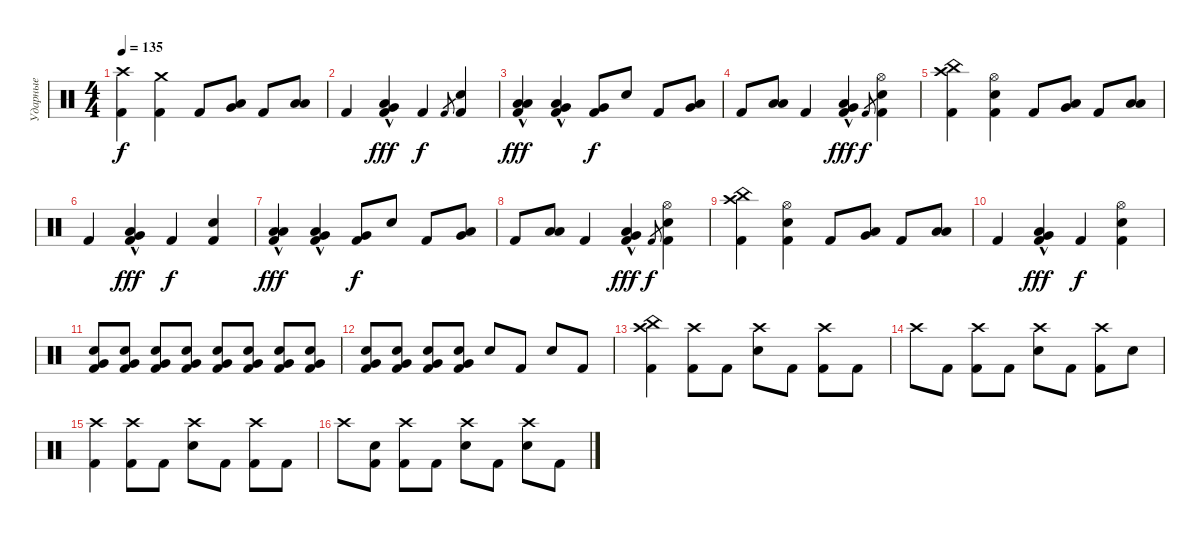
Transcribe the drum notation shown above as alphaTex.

\track ("Ударные" "Ударные") {instrument percussion}
\staff {score}
\articulation defaults
\ts (4 4)
\tempo 135
\clef neutral
\ks c
("Crash high (hit)" "Kick (hit) 2").4{dy f} ("Crash medium (hit)" "Kick (hit) 2").4 "Kick (hit) 2".8 ("Low Tom (hit)" "Very Low Tom (hit)").8 "Kick (hit) 2".8 ("Low Tom (hit)" "Low Floor Tom (hit)").8 |
"Kick (hit) 2".4 ("Very Low Tom (hit)" "Low Floor Tom (hit)"{hac} "Kick (hit) 2").4{dy fff} "Kick (hit) 2".4{dy f} "Kick (hit) 2".8{gr} ("Electric Snare (hit)" "Kick (hit) 2").4 |
("Low Tom (hit)" "Low Floor Tom (hit)"{hac} "Kick (hit) 2").4{dy fff} ("Very Low Tom (hit)" "Low Floor Tom (hit)"{hac} "Kick (hit) 2").4 ("Very Low Tom (hit)" "Kick (hit) 2").8{dy f} "Electric Snare (hit)".8 "Kick (hit) 2".8 ("Low Tom (hit)" "Very Low Tom (hit)").8 |
"Kick (hit) 2".8 ("Low Tom (hit)" "Low Floor Tom (hit)").8 "Kick (hit) 2".4 ("Very Low Tom (hit)" "Low Floor Tom (hit)"{hac} "Kick (hit) 2").4{dy fff} "Kick (hit) 2".8{gr dy f} ("Hi-Hat (open)" "Electric Snare (hit)" "Kick (hit) 2").4 |
("Crash high (hit)" "China (hit)" "Kick (hit) 2").4 ("Hi-Hat (open)" "Electric Snare (hit)" "Kick (hit) 2").4 "Kick (hit) 2".8 ("Low Tom (hit)" "Very Low Tom (hit)").8 "Kick (hit) 2".8 ("Low Tom (hit)" "Low Floor Tom (hit)").8 |
"Kick (hit) 2".4 ("Very Low Tom (hit)" "Low Floor Tom (hit)"{hac} "Kick (hit) 2").4{dy fff} "Kick (hit) 2".4{dy f} ("Electric Snare (hit)" "Kick (hit) 2").4 |
("Low Tom (hit)" "Low Floor Tom (hit)"{hac} "Kick (hit) 2").4{dy fff} ("Very Low Tom (hit)" "Low Floor Tom (hit)"{hac} "Kick (hit) 2").4 ("Very Low Tom (hit)" "Kick (hit) 2").8{dy f} "Electric Snare (hit)".8 "Kick (hit) 2".8 ("Low Tom (hit)" "Very Low Tom (hit)").8 |
"Kick (hit) 2".8 ("Low Tom (hit)" "Low Floor Tom (hit)").8 "Kick (hit) 2".4 ("Very Low Tom (hit)" "Low Floor Tom (hit)"{hac} "Kick (hit) 2").4{dy fff} "Kick (hit) 2".8{gr dy f} ("Hi-Hat (open)" "Electric Snare (hit)" "Kick (hit) 2").4 |
("Crash high (hit)" "China (hit)" "Kick (hit) 2").4 ("Hi-Hat (open)" "Electric Snare (hit)" "Kick (hit) 2").4 "Kick (hit) 2".8 ("Low Tom (hit)" "Very Low Tom (hit)").8 "Kick (hit) 2".8 ("Low Tom (hit)" "Low Floor Tom (hit)").8 |
"Kick (hit) 2".4 ("Very Low Tom (hit)" "Low Floor Tom (hit)"{hac} "Kick (hit) 2").4{dy fff} "Kick (hit) 2".4{dy f} ("Hi-Hat (open)" "Electric Snare (hit)" "Kick (hit) 2").4 |
("Electric Snare (hit)" "Very Low Tom (hit)" "Kick (hit) 2").8{volume 8} ("Electric Snare (hit)" "Very Low Tom (hit)" "Kick (hit) 2").8{volume 13} ("Electric Snare (hit)" "Very Low Tom (hit)" "Kick (hit) 2").8 ("Electric Snare (hit)" "Very Low Tom (hit)" "Kick (hit) 2").8 ("Electric Snare (hit)" "Very Low Tom (hit)" "Kick (hit) 2").8 ("Electric Snare (hit)" "Very Low Tom (hit)" "Kick (hit) 2").8 ("Electric Snare (hit)" "Very Low Tom (hit)" "Kick (hit) 2").8 ("Electric Snare (hit)" "Very Low Tom (hit)" "Kick (hit) 2").8 |
("Electric Snare (hit)" "Very Low Tom (hit)" "Kick (hit) 2").8 ("Electric Snare (hit)" "Very Low Tom (hit)" "Kick (hit) 2").8 ("Electric Snare (hit)" "Very Low Tom (hit)" "Kick (hit) 2").8 ("Electric Snare (hit)" "Very Low Tom (hit)" "Kick (hit) 2").8 "Electric Snare (hit)".8 "Kick (hit) 2".8 "Electric Snare (hit)".8 "Kick (hit) 2".8 |
("Crash high (hit)" "China (hit)" "Kick (hit) 2").4 ("Crash high (hit)" "Kick (hit) 2").8 "Kick (hit) 2".8 ("Crash high (hit)" "Electric Snare (hit)").8 "Kick (hit) 2".8 ("Crash high (hit)" "Kick (hit) 2").8 "Kick (hit) 2".8 |
"Crash high (hit)".8 "Kick (hit) 2".8 ("Crash high (hit)" "Kick (hit) 2").8 "Kick (hit) 2".8 ("Crash high (hit)" "Electric Snare (hit)").8 "Kick (hit) 2".8 ("Crash high (hit)" "Kick (hit) 2").8 "Electric Snare (hit)".8 |
("Crash high (hit)" "Kick (hit) 2").4 ("Crash high (hit)" "Kick (hit) 2").8 "Kick (hit) 2".8 ("Crash high (hit)" "Electric Snare (hit)").8 "Kick (hit) 2".8 ("Crash high (hit)" "Kick (hit) 2").8 "Kick (hit) 2".8 |
"Crash high (hit)".8 ("Electric Snare (hit)" "Kick (hit) 2").8 ("Crash high (hit)" "Kick (hit) 2").8 "Kick (hit) 2".8 ("Crash high (hit)" "Electric Snare (hit)").8 "Kick (hit) 2".8 ("Crash high (hit)" "Electric Snare (hit)").8 "Kick (hit) 2".8
